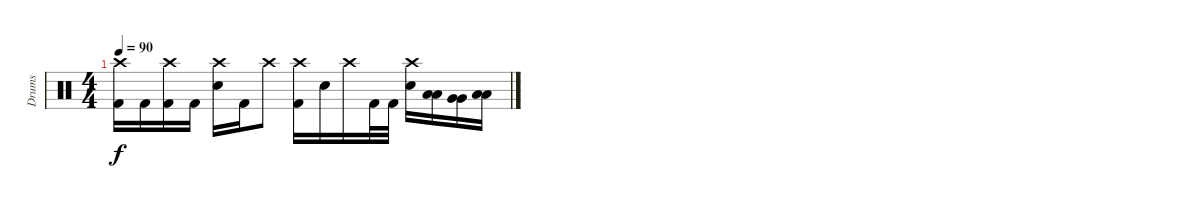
\track ("Drums" "Drums") {instrument percussion}
\staff {score}
\articulation defaults
\ts (4 4)
\tempo 90
\clef neutral
\ks c
("Crash high (hit)" "Kick (hit) 2").16{dy f} "Kick (hit) 2".16 ("Crash high (hit)" "Kick (hit) 2").16 "Kick (hit) 2".16 ("Crash high (hit)" "Electric Snare (hit)").16 "Kick (hit) 2".16 "Crash high (hit)".8 ("Crash high (hit)" "Kick (hit) 2").16 "Electric Snare (hit)".16 "Crash high (hit)".16 "Kick (hit) 2".32 "Kick (hit) 2".32 ("Crash high (hit)" "Electric Snare (hit)").16 ("Low Tom (hit)" "Low Tom (hit)").16 ("Very Low Tom (hit)" "Very Low Tom (hit)").16 ("Low Floor Tom (hit)" "Low Floor Tom (hit)").16
